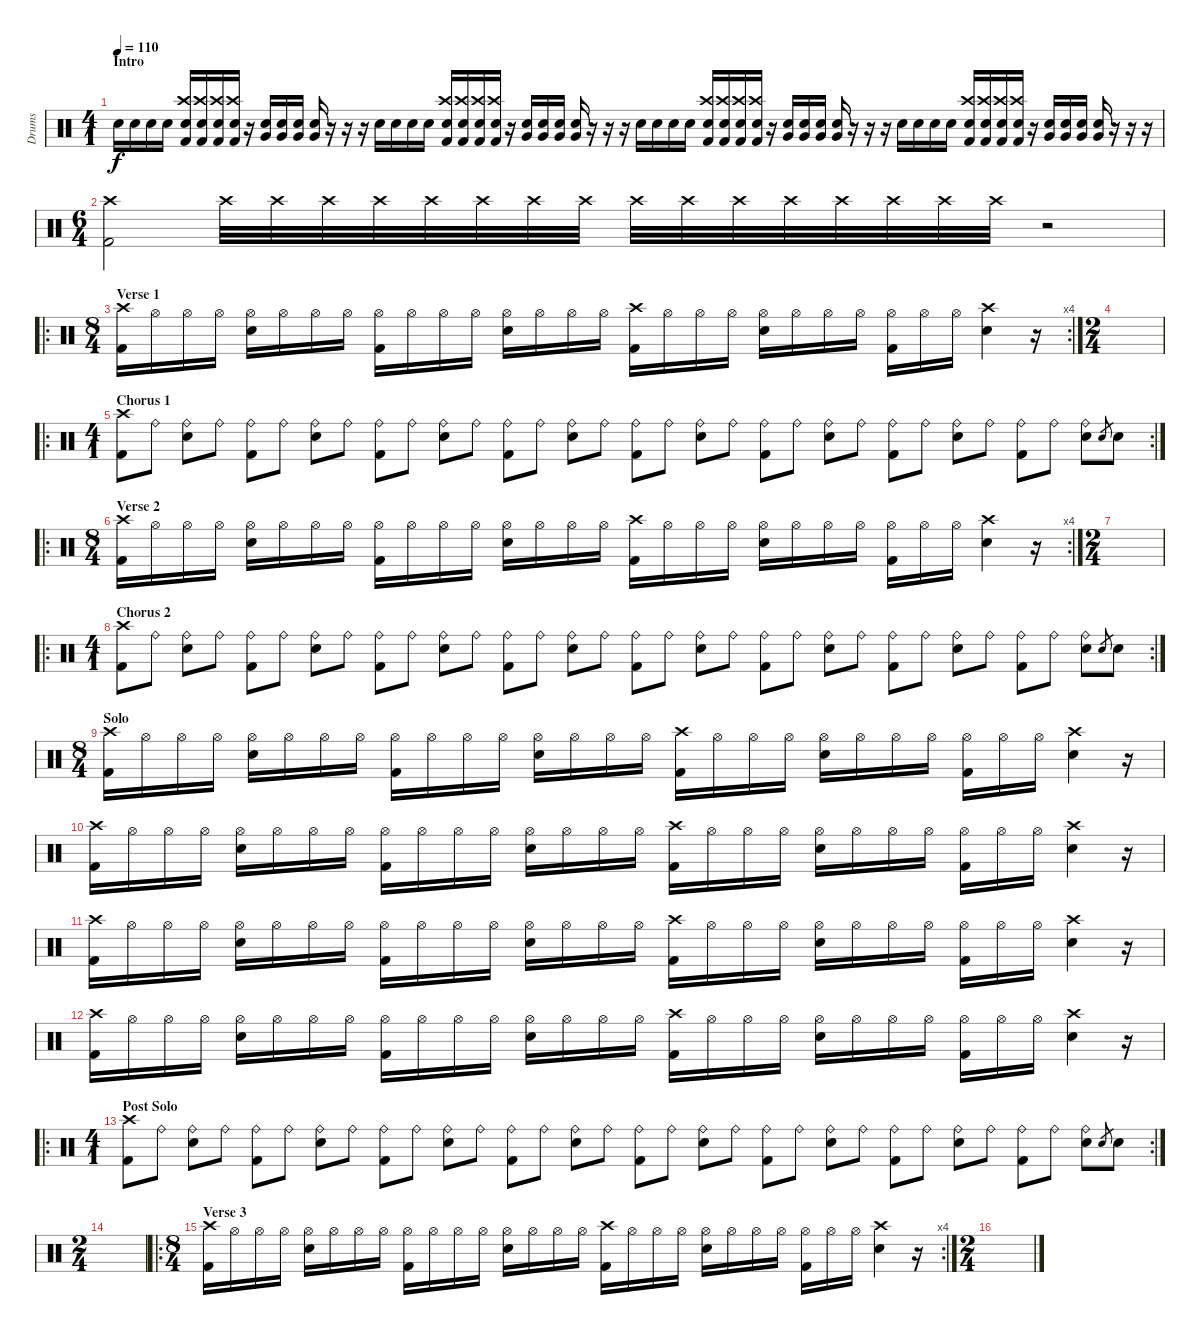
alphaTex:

\track ("Drums" "Drums") {instrument percussion}
\staff {score}
\articulation defaults
\ts (4 1)
\section ("" "Intro")
\tempo 110
\clef neutral
\ks c "Electric Snare (hit)".16{dy f} "Electric Snare (hit)".16 "Electric Snare (hit)".16 "Electric Snare (hit)".16
("Crash high (hit)" "Electric Snare (hit)" "Kick (hit) 2").16 ("Crash high (hit)" "Electric Snare (hit)" "Kick (hit) 2").16 ("Crash high (hit)" "Electric Snare (hit)" "Kick (hit) 2").16 ("Crash high (hit)" "Electric Snare (hit)" "Kick (hit) 2").16 r.16 ("Very Low Tom (hit)" "Electric Snare (hit)").16 ("Very Low Tom (hit)" "Electric Snare (hit)").16 ("Very Low Tom (hit)" "Electric Snare (hit)").16 ("Very Low Tom (hit)" "Electric Snare (hit)").16 r.16 r.16 r.16 "Electric Snare (hit)".16 "Electric Snare (hit)".16 "Electric Snare (hit)".16 "Electric Snare (hit)".16 ("Crash high (hit)" "Electric Snare (hit)" "Kick (hit) 2").16 ("Crash high (hit)" "Electric Snare (hit)" "Kick (hit) 2").16 ("Crash high (hit)" "Electric Snare (hit)" "Kick (hit) 2").16 ("Crash high (hit)" "Electric Snare (hit)" "Kick (hit) 2").16 r.16 ("Very Low Tom (hit)" "Electric Snare (hit)").16 ("Very Low Tom (hit)" "Electric Snare (hit)").16 ("Very Low Tom (hit)" "Electric Snare (hit)").16 ("Very Low Tom (hit)" "Electric Snare (hit)").16 r.16 r.16 r.16 "Electric Snare (hit)".16 "Electric Snare (hit)".16 "Electric Snare (hit)".16 "Electric Snare (hit)".16 ("Crash high (hit)" "Electric Snare (hit)" "Kick (hit) 2").16 ("Crash high (hit)" "Electric Snare (hit)" "Kick (hit) 2").16 ("Crash high (hit)" "Electric Snare (hit)" "Kick (hit) 2").16 ("Crash high (hit)" "Electric Snare (hit)" "Kick (hit) 2").16 r.16 ("Very Low Tom (hit)" "Electric Snare (hit)").16 ("Very Low Tom (hit)" "Electric Snare (hit)").16 ("Very Low Tom (hit)" "Electric Snare (hit)").16 ("Very Low Tom (hit)" "Electric Snare (hit)").16 r.16 r.16 r.16 "Electric Snare (hit)".16 "Electric Snare (hit)".16 "Electric Snare (hit)".16 "Electric Snare (hit)".16 ("Crash high (hit)" "Electric Snare (hit)" "Kick (hit) 2").16 ("Crash high (hit)" "Electric Snare (hit)" "Kick (hit) 2").16 ("Crash high (hit)" "Electric Snare (hit)" "Kick (hit) 2").16 ("Crash high (hit)" "Electric Snare (hit)" "Kick (hit) 2").16 r.16 ("Very Low Tom (hit)" "Electric Snare (hit)").16 ("Very Low Tom (hit)" "Electric Snare (hit)").16 ("Very Low Tom (hit)" "Electric Snare (hit)").16 ("Very Low Tom (hit)" "Electric Snare (hit)").16 r.16 r.16 r.16 |
\ts (6 4)
("Crash high (hit)" "Kick (hit) 2").2 "Crash high (hit)".32 "Crash high (hit)".32 "Crash high (hit)".32 "Crash high (hit)".32 "Crash high (hit)".32 "Crash high (hit)".32 "Crash high (hit)".32 "Crash high (hit)".32 "Crash high (hit)".32 "Crash high (hit)".32 "Crash high (hit)".32 "Crash high (hit)".32 "Crash high (hit)".32 "Crash high (hit)".32 "Crash high (hit)".32 "Crash high (hit)".32 r.2 |
\ro
\rc 4
\ts (8 4)
\section ("" "Verse 1")
("Crash high (hit)" "Kick (hit) 2").16 "Hi-Hat (open)".16 "Hi-Hat (open)".16 "Hi-Hat (open)".16 ("Hi-Hat (open)" "Electric Snare (hit)").16 "Hi-Hat (open)".16 "Hi-Hat (open)".16 "Hi-Hat (open)".16 ("Hi-Hat (open)" "Kick (hit) 2").16 "Hi-Hat (open)".16 "Hi-Hat (open)".16 "Hi-Hat (open)".16 ("Hi-Hat (open)" "Electric Snare (hit)").16 "Hi-Hat (open)".16 "Hi-Hat (open)".16 "Hi-Hat (open)".16 ("Crash high (hit)" "Kick (hit) 2").16 "Hi-Hat (open)".16 "Hi-Hat (open)".16 "Hi-Hat (open)".16 ("Hi-Hat (open)" "Electric Snare (hit)").16 "Hi-Hat (open)".16 "Hi-Hat (open)".16 "Hi-Hat (open)".16 ("Hi-Hat (open)" "Kick (hit) 2").16 "Hi-Hat (open)".16 "Hi-Hat (open)".16 ("Crash high (hit)" "Electric Snare (hit)").4 r.16 |
\ts (2 4)
|
\ro
\rc 2
\ts (4 1)
\section ("" "Chorus 1")
("Crash high (hit)" "Kick (hit) 2").8 "Ride (bell)".8 ("Ride (bell)" "Electric Snare (hit)").8 "Ride (bell)".8 ("Ride (bell)" "Kick (hit) 2").8 "Ride (bell)".8 ("Ride (bell)" "Electric Snare (hit)").8 "Ride (bell)".8 ("Ride (bell)" "Kick (hit) 2").8 "Ride (bell)".8 ("Ride (bell)" "Electric Snare (hit)").8 "Ride (bell)".8 ("Ride (bell)" "Kick (hit) 2").8 "Ride (bell)".8 ("Ride (bell)" "Electric Snare (hit)").8 "Ride (bell)".8 ("Ride (bell)" "Kick (hit) 2").8 "Ride (bell)".8 ("Ride (bell)" "Electric Snare (hit)").8 "Ride (bell)".8 ("Ride (bell)" "Kick (hit) 2").8 "Ride (bell)".8 ("Ride (bell)" "Electric Snare (hit)").8 "Ride (bell)".8 ("Ride (bell)" "Kick (hit) 2").8 "Ride (bell)".8 ("Ride (bell)" "Electric Snare (hit)").8 "Ride (bell)".8 ("Ride (bell)" "Kick (hit) 2").8 "Ride (bell)".8 ("Ride (bell)" "Electric Snare (hit)").8 "Electric Snare (hit)".8{gr} "Electric Snare (hit)".8 |
\ro
\rc 4
\ts (8 4)
\section ("" "Verse 2")
("Crash high (hit)" "Kick (hit) 2").16 "Hi-Hat (open)".16 "Hi-Hat (open)".16 "Hi-Hat (open)".16 ("Hi-Hat (open)" "Electric Snare (hit)").16 "Hi-Hat (open)".16 "Hi-Hat (open)".16 "Hi-Hat (open)".16 ("Hi-Hat (open)" "Kick (hit) 2").16 "Hi-Hat (open)".16 "Hi-Hat (open)".16 "Hi-Hat (open)".16 ("Hi-Hat (open)" "Electric Snare (hit)").16 "Hi-Hat (open)".16 "Hi-Hat (open)".16 "Hi-Hat (open)".16 ("Crash high (hit)" "Kick (hit) 2").16 "Hi-Hat (open)".16 "Hi-Hat (open)".16 "Hi-Hat (open)".16 ("Hi-Hat (open)" "Electric Snare (hit)").16 "Hi-Hat (open)".16 "Hi-Hat (open)".16 "Hi-Hat (open)".16 ("Hi-Hat (open)" "Kick (hit) 2").16 "Hi-Hat (open)".16 "Hi-Hat (open)".16 ("Crash high (hit)" "Electric Snare (hit)").4 r.16 |
\ts (2 4)
|
\ro
\rc 2
\ts (4 1)
\section ("" "Chorus 2")
("Crash high (hit)" "Kick (hit) 2").8 "Ride (bell)".8 ("Ride (bell)" "Electric Snare (hit)").8 "Ride (bell)".8 ("Ride (bell)" "Kick (hit) 2").8 "Ride (bell)".8 ("Ride (bell)" "Electric Snare (hit)").8 "Ride (bell)".8 ("Ride (bell)" "Kick (hit) 2").8 "Ride (bell)".8 ("Ride (bell)" "Electric Snare (hit)").8 "Ride (bell)".8 ("Ride (bell)" "Kick (hit) 2").8 "Ride (bell)".8 ("Ride (bell)" "Electric Snare (hit)").8 "Ride (bell)".8 ("Ride (bell)" "Kick (hit) 2").8 "Ride (bell)".8 ("Ride (bell)" "Electric Snare (hit)").8 "Ride (bell)".8 ("Ride (bell)" "Kick (hit) 2").8 "Ride (bell)".8 ("Ride (bell)" "Electric Snare (hit)").8 "Ride (bell)".8 ("Ride (bell)" "Kick (hit) 2").8 "Ride (bell)".8 ("Ride (bell)" "Electric Snare (hit)").8 "Ride (bell)".8 ("Ride (bell)" "Kick (hit) 2").8 "Ride (bell)".8 ("Ride (bell)" "Electric Snare (hit)").8 "Electric Snare (hit)".8{gr} "Electric Snare (hit)".8 |
\ts (8 4)
\section ("" "Solo")
("Crash high (hit)" "Kick (hit) 2").16 "Hi-Hat (open)".16 "Hi-Hat (open)".16 "Hi-Hat (open)".16 ("Hi-Hat (open)" "Electric Snare (hit)").16 "Hi-Hat (open)".16 "Hi-Hat (open)".16 "Hi-Hat (open)".16 ("Hi-Hat (open)" "Kick (hit) 2").16 "Hi-Hat (open)".16 "Hi-Hat (open)".16 "Hi-Hat (open)".16 ("Hi-Hat (open)" "Electric Snare (hit)").16 "Hi-Hat (open)".16 "Hi-Hat (open)".16 "Hi-Hat (open)".16 ("Crash high (hit)" "Kick (hit) 2").16 "Hi-Hat (open)".16 "Hi-Hat (open)".16 "Hi-Hat (open)".16 ("Hi-Hat (open)" "Electric Snare (hit)").16 "Hi-Hat (open)".16 "Hi-Hat (open)".16 "Hi-Hat (open)".16 ("Hi-Hat (open)" "Kick (hit) 2").16 "Hi-Hat (open)".16 "Hi-Hat (open)".16 ("Crash high (hit)" "Electric Snare (hit)").4 r.16 |
("Crash high (hit)" "Kick (hit) 2").16 "Hi-Hat (open)".16 "Hi-Hat (open)".16 "Hi-Hat (open)".16 ("Hi-Hat (open)" "Electric Snare (hit)").16 "Hi-Hat (open)".16 "Hi-Hat (open)".16 "Hi-Hat (open)".16 ("Hi-Hat (open)" "Kick (hit) 2").16 "Hi-Hat (open)".16 "Hi-Hat (open)".16 "Hi-Hat (open)".16 ("Hi-Hat (open)" "Electric Snare (hit)").16 "Hi-Hat (open)".16 "Hi-Hat (open)".16 "Hi-Hat (open)".16 ("Crash high (hit)" "Kick (hit) 2").16 "Hi-Hat (open)".16 "Hi-Hat (open)".16 "Hi-Hat (open)".16 ("Hi-Hat (open)" "Electric Snare (hit)").16 "Hi-Hat (open)".16 "Hi-Hat (open)".16 "Hi-Hat (open)".16 ("Hi-Hat (open)" "Kick (hit) 2").16 "Hi-Hat (open)".16 "Hi-Hat (open)".16 ("Crash high (hit)" "Electric Snare (hit)").4 r.16 |
("Crash high (hit)" "Kick (hit) 2").16 "Hi-Hat (open)".16 "Hi-Hat (open)".16 "Hi-Hat (open)".16 ("Hi-Hat (open)" "Electric Snare (hit)").16 "Hi-Hat (open)".16 "Hi-Hat (open)".16 "Hi-Hat (open)".16 ("Hi-Hat (open)" "Kick (hit) 2").16 "Hi-Hat (open)".16 "Hi-Hat (open)".16 "Hi-Hat (open)".16 ("Hi-Hat (open)" "Electric Snare (hit)").16 "Hi-Hat (open)".16 "Hi-Hat (open)".16 "Hi-Hat (open)".16 ("Crash high (hit)" "Kick (hit) 2").16 "Hi-Hat (open)".16 "Hi-Hat (open)".16 "Hi-Hat (open)".16 ("Hi-Hat (open)" "Electric Snare (hit)").16 "Hi-Hat (open)".16 "Hi-Hat (open)".16 "Hi-Hat (open)".16 ("Hi-Hat (open)" "Kick (hit) 2").16 "Hi-Hat (open)".16 "Hi-Hat (open)".16 ("Crash high (hit)" "Electric Snare (hit)").4 r.16 |
("Crash high (hit)" "Kick (hit) 2").16 "Hi-Hat (open)".16 "Hi-Hat (open)".16 "Hi-Hat (open)".16 ("Hi-Hat (open)" "Electric Snare (hit)").16 "Hi-Hat (open)".16 "Hi-Hat (open)".16 "Hi-Hat (open)".16 ("Hi-Hat (open)" "Kick (hit) 2").16 "Hi-Hat (open)".16 "Hi-Hat (open)".16 "Hi-Hat (open)".16 ("Hi-Hat (open)" "Electric Snare (hit)").16 "Hi-Hat (open)".16 "Hi-Hat (open)".16 "Hi-Hat (open)".16 ("Crash high (hit)" "Kick (hit) 2").16 "Hi-Hat (open)".16 "Hi-Hat (open)".16 "Hi-Hat (open)".16 ("Hi-Hat (open)" "Electric Snare (hit)").16 "Hi-Hat (open)".16 "Hi-Hat (open)".16 "Hi-Hat (open)".16 ("Hi-Hat (open)" "Kick (hit) 2").16 "Hi-Hat (open)".16 "Hi-Hat (open)".16 ("Crash high (hit)" "Electric Snare (hit)").4 r.16 |
\ro
\rc 2
\ts (4 1)
\section ("" "Post Solo")
("Crash high (hit)" "Kick (hit) 2").8 "Ride (bell)".8 ("Ride (bell)" "Electric Snare (hit)").8 "Ride (bell)".8 ("Ride (bell)" "Kick (hit) 2").8 "Ride (bell)".8 ("Ride (bell)" "Electric Snare (hit)").8 "Ride (bell)".8 ("Ride (bell)" "Kick (hit) 2").8 "Ride (bell)".8 ("Ride (bell)" "Electric Snare (hit)").8 "Ride (bell)".8 ("Ride (bell)" "Kick (hit) 2").8 "Ride (bell)".8 ("Ride (bell)" "Electric Snare (hit)").8 "Ride (bell)".8 ("Ride (bell)" "Kick (hit) 2").8 "Ride (bell)".8 ("Ride (bell)" "Electric Snare (hit)").8 "Ride (bell)".8 ("Ride (bell)" "Kick (hit) 2").8 "Ride (bell)".8 ("Ride (bell)" "Electric Snare (hit)").8 "Ride (bell)".8 ("Ride (bell)" "Kick (hit) 2").8 "Ride (bell)".8 ("Ride (bell)" "Electric Snare (hit)").8 "Ride (bell)".8 ("Ride (bell)" "Kick (hit) 2").8 "Ride (bell)".8 ("Ride (bell)" "Electric Snare (hit)").8 "Electric Snare (hit)".8{gr} "Electric Snare (hit)".8 |
\ts (2 4)
|
\ro
\rc 4
\ts (8 4)
\section ("" "Verse 3")
("Crash high (hit)" "Kick (hit) 2").16 "Hi-Hat (open)".16 "Hi-Hat (open)".16 "Hi-Hat (open)".16 ("Hi-Hat (open)" "Electric Snare (hit)").16 "Hi-Hat (open)".16 "Hi-Hat (open)".16 "Hi-Hat (open)".16 ("Hi-Hat (open)" "Kick (hit) 2").16 "Hi-Hat (open)".16 "Hi-Hat (open)".16 "Hi-Hat (open)".16 ("Hi-Hat (open)" "Electric Snare (hit)").16 "Hi-Hat (open)".16 "Hi-Hat (open)".16 "Hi-Hat (open)".16 ("Crash high (hit)" "Kick (hit) 2").16 "Hi-Hat (open)".16 "Hi-Hat (open)".16 "Hi-Hat (open)".16 ("Hi-Hat (open)" "Electric Snare (hit)").16 "Hi-Hat (open)".16 "Hi-Hat (open)".16 "Hi-Hat (open)".16 ("Hi-Hat (open)" "Kick (hit) 2").16 "Hi-Hat (open)".16 "Hi-Hat (open)".16 ("Crash high (hit)" "Electric Snare (hit)").4 r.16 |
\ts (2 4)
